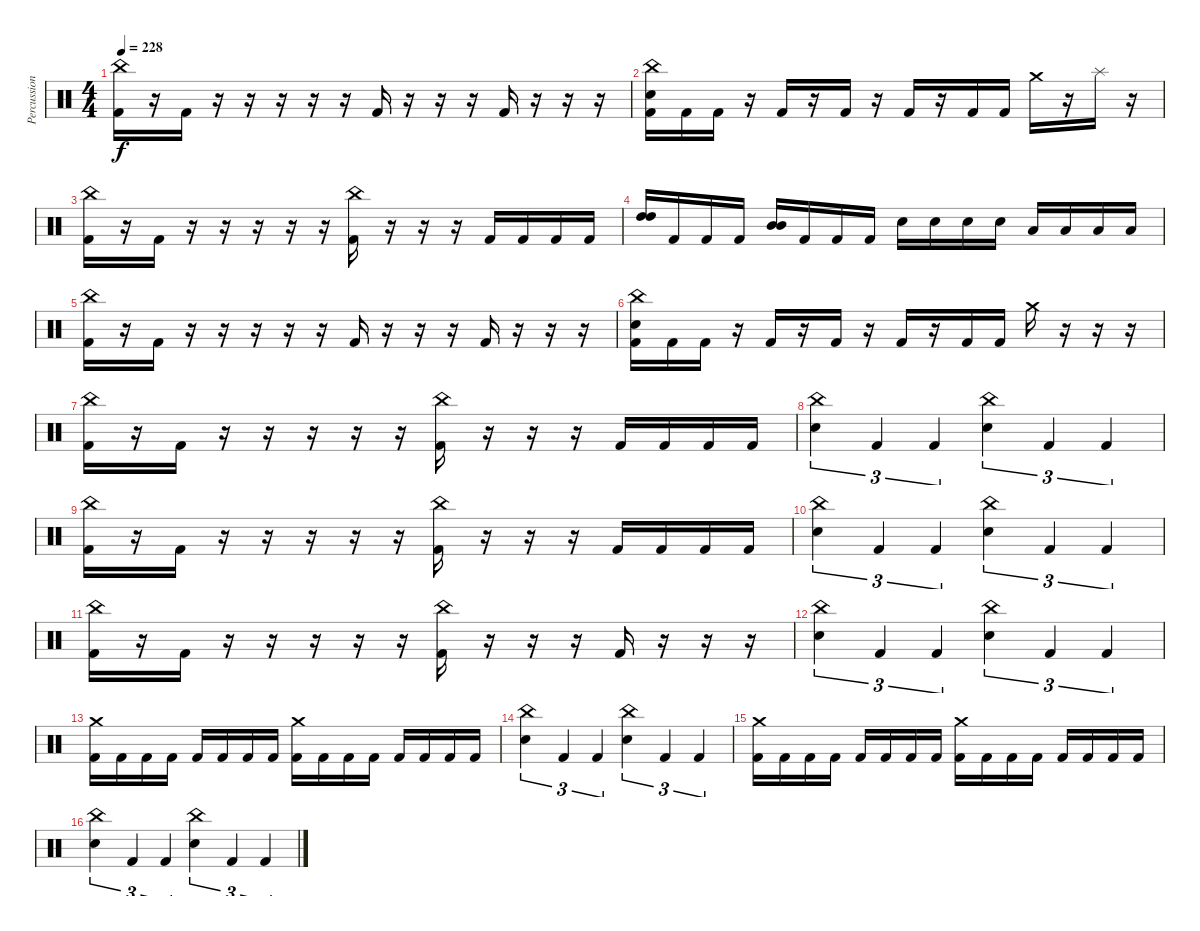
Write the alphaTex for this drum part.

\track ("Percussion" "Percussion") {instrument percussion}
\staff {score}
\articulation defaults
\ts (4 4)
\tempo 228
\clef neutral
\ks c
("China (hit)" "Kick (hit) 2").16{dy f} r.16 "Kick (hit) 2".16 r.16 r.16 r.16 r.16 r.16 "Kick (hit) 2".16 r.16 r.16 r.16 "Kick (hit) 2".16 r.16 r.16 r.16 |
("China (hit)" "Electric Snare (hit)" "Kick (hit) 2").16 "Kick (hit) 2".16 "Kick (hit) 2".16 r.16 "Kick (hit) 2".16 r.16 "Kick (hit) 2".16 r.16 "Kick (hit) 2".16 r.16 "Kick (hit) 2".16 "Kick (hit) 2".16 "Crash medium (hit)".16 r.16 "Splash (hit)".16 r.16 |
("China (hit)" "Kick (hit) 2").16 r.16 "Kick (hit) 2".16 r.16 r.16 r.16 r.16 r.16 ("China (hit)" "Kick (hit) 2").16 r.16 r.16 r.16 "Kick (hit) 2".16 "Kick (hit) 2".16 "Kick (hit) 2".16 "Kick (hit) 2".16 |
("High Tom (hit)" "High Tom (hit)").16 "Kick (hit) 2".16 "Kick (hit) 2".16 "Kick (hit) 2".16 ("Mid Tom (hit)" "Mid Tom (hit)").16 "Kick (hit) 2".16 "Kick (hit) 2".16 "Kick (hit) 2".16 "Electric Snare (hit)".16 "Electric Snare (hit)".16 "Electric Snare (hit)".16 "Electric Snare (hit)".16 "Low Tom (hit)".16 "Low Tom (hit)".16 "Low Tom (hit)".16 "Low Tom (hit)".16 |
("China (hit)" "Kick (hit) 2").16 r.16 "Kick (hit) 2".16 r.16 r.16 r.16 r.16 r.16 "Kick (hit) 2".16 r.16 r.16 r.16 "Kick (hit) 2".16 r.16 r.16 r.16 |
("China (hit)" "Electric Snare (hit)" "Kick (hit) 2").16 "Kick (hit) 2".16 "Kick (hit) 2".16 r.16 "Kick (hit) 2".16 r.16 "Kick (hit) 2".16 r.16 "Kick (hit) 2".16 r.16 "Kick (hit) 2".16 "Kick (hit) 2".16 "Crash medium (hit)".16 r.16 r.16 r.16 |
("China (hit)" "Kick (hit) 2").16 r.16 "Kick (hit) 2".16 r.16 r.16 r.16 r.16 r.16 ("China (hit)" "Kick (hit) 2").16 r.16 r.16 r.16 "Kick (hit) 2".16 "Kick (hit) 2".16 "Kick (hit) 2".16 "Kick (hit) 2".16 |
("China (hit)" "Electric Snare (hit)").4{tu (3 2)} "Kick (hit) 2".4{tu (3 2)} "Kick (hit) 2".4{tu (3 2)} ("China (hit)" "Electric Snare (hit)").4{tu (3 2)} "Kick (hit) 2".4{tu (3 2)} "Kick (hit) 2".4{tu (3 2)} |
("China (hit)" "Kick (hit) 2").16 r.16 "Kick (hit) 2".16 r.16 r.16 r.16 r.16 r.16 ("China (hit)" "Kick (hit) 2").16 r.16 r.16 r.16 "Kick (hit) 2".16 "Kick (hit) 2".16 "Kick (hit) 2".16 "Kick (hit) 2".16 |
("China (hit)" "Electric Snare (hit)").4{tu (3 2)} "Kick (hit) 2".4{tu (3 2)} "Kick (hit) 2".4{tu (3 2)} ("China (hit)" "Electric Snare (hit)").4{tu (3 2)} "Kick (hit) 2".4{tu (3 2)} "Kick (hit) 2".4{tu (3 2)} |
("China (hit)" "Kick (hit) 2").16 r.16 "Kick (hit) 2".16 r.16 r.16 r.16 r.16 r.16 ("China (hit)" "Kick (hit) 2").16 r.16 r.16 r.16 "Kick (hit) 2".16 r.16 r.16 r.16 |
("China (hit)" "Electric Snare (hit)").4{tu (3 2)} "Kick (hit) 2".4{tu (3 2)} "Kick (hit) 2".4{tu (3 2)} ("China (hit)" "Electric Snare (hit)").4{tu (3 2)} "Kick (hit) 2".4{tu (3 2)} "Kick (hit) 2".4{tu (3 2)} |
("Crash medium (hit)" "Kick (hit) 2").16 "Kick (hit) 2".16 "Kick (hit) 2".16 "Kick (hit) 2".16 "Kick (hit) 2".16 "Kick (hit) 2".16 "Kick (hit) 2".16 "Kick (hit) 2".16 ("Crash medium (hit)" "Kick (hit) 2").16 "Kick (hit) 2".16 "Kick (hit) 2".16 "Kick (hit) 2".16 "Kick (hit) 2".16 "Kick (hit) 2".16 "Kick (hit) 2".16 "Kick (hit) 2".16 |
("China (hit)" "Electric Snare (hit)").4{tu (3 2)} "Kick (hit) 2".4{tu (3 2)} "Kick (hit) 2".4{tu (3 2)} ("China (hit)" "Electric Snare (hit)").4{tu (3 2)} "Kick (hit) 2".4{tu (3 2)} "Kick (hit) 2".4{tu (3 2)} |
("Crash medium (hit)" "Kick (hit) 2").16 "Kick (hit) 2".16 "Kick (hit) 2".16 "Kick (hit) 2".16 "Kick (hit) 2".16 "Kick (hit) 2".16 "Kick (hit) 2".16 "Kick (hit) 2".16 ("Crash medium (hit)" "Kick (hit) 2").16 "Kick (hit) 2".16 "Kick (hit) 2".16 "Kick (hit) 2".16 "Kick (hit) 2".16 "Kick (hit) 2".16 "Kick (hit) 2".16 "Kick (hit) 2".16 |
("China (hit)" "Electric Snare (hit)").4{tu (3 2)} "Kick (hit) 2".4{tu (3 2)} "Kick (hit) 2".4{tu (3 2)} ("China (hit)" "Electric Snare (hit)").4{tu (3 2)} "Kick (hit) 2".4{tu (3 2)} "Kick (hit) 2".4{tu (3 2)}
